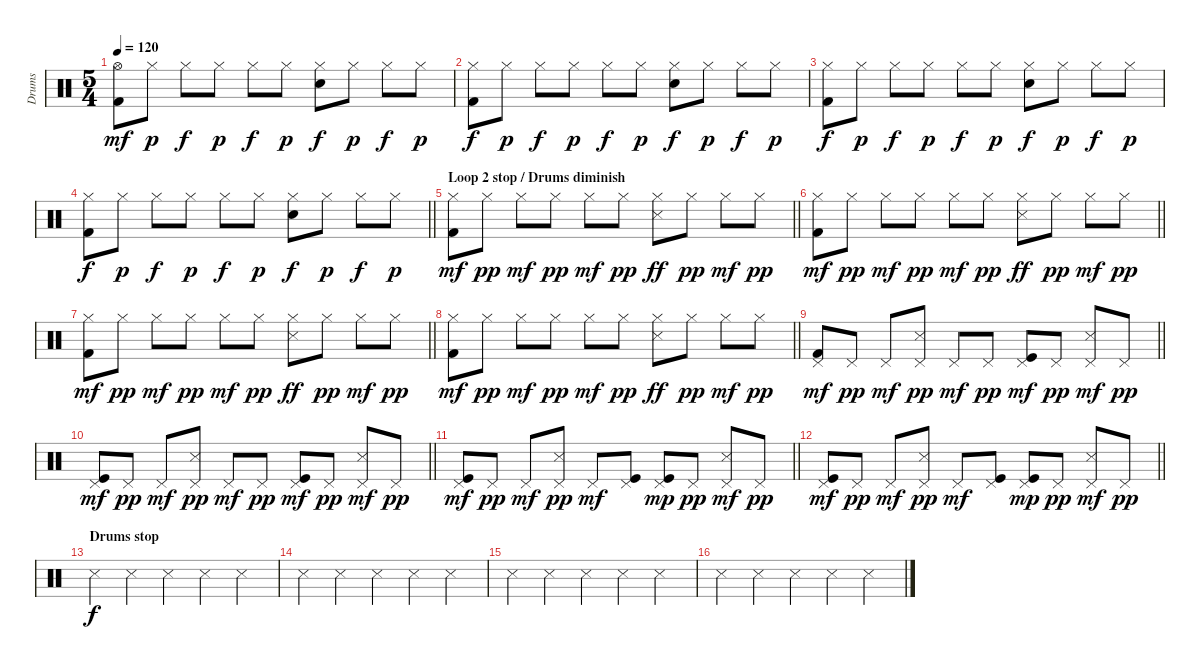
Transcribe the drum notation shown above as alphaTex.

\track ("Drums" "Drums") {instrument percussion}
\staff {score}
\articulation defaults
\ts (5 4)
\tempo 120
\clef neutral
\ks c
("Hi-Hat (open)" "Kick (hit) 2").8{dy mf} "Hi-Hat (closed)".8{dy p} "Hi-Hat (closed)".8{dy f} "Hi-Hat (closed)".8{dy p} "Hi-Hat (closed)".8{dy f} "Hi-Hat (closed)".8{dy p} ("Hi-Hat (closed)" "Electric Snare (hit)").8{dy f} "Hi-Hat (closed)".8{dy p} "Hi-Hat (closed)".8{dy f} "Hi-Hat (closed)".8{dy p} |
("Hi-Hat (closed)" "Kick (hit) 2").8{dy f} "Hi-Hat (closed)".8{dy p} "Hi-Hat (closed)".8{dy f} "Hi-Hat (closed)".8{dy p} "Hi-Hat (closed)".8{dy f} "Hi-Hat (closed)".8{dy p} ("Hi-Hat (closed)" "Electric Snare (hit)").8{dy f} "Hi-Hat (closed)".8{dy p} "Hi-Hat (closed)".8{dy f} "Hi-Hat (closed)".8{dy p} |
("Hi-Hat (closed)" "Kick (hit) 2").8{dy f} "Hi-Hat (closed)".8{dy p} "Hi-Hat (closed)".8{dy f} "Hi-Hat (closed)".8{dy p} "Hi-Hat (closed)".8{dy f} "Hi-Hat (closed)".8{dy p} ("Hi-Hat (closed)" "Electric Snare (hit)").8{dy f} "Hi-Hat (closed)".8{dy p} "Hi-Hat (closed)".8{dy f} "Hi-Hat (closed)".8{dy p} |
\barLineRight lightlight
("Hi-Hat (closed)" "Kick (hit) 2").8{dy f} "Hi-Hat (closed)".8{dy p} "Hi-Hat (closed)".8{dy f} "Hi-Hat (closed)".8{dy p} "Hi-Hat (closed)".8{dy f} "Hi-Hat (closed)".8{dy p} ("Hi-Hat (closed)" "Electric Snare (hit)").8{dy f} "Hi-Hat (closed)".8{dy p} "Hi-Hat (closed)".8{dy f} "Hi-Hat (closed)".8{dy p} |
\section ("" "Loop 2 stop / Drums diminish")
\barLineRight lightlight
("Hi-Hat (closed)" "Kick (hit) 2").8{dy mf} "Hi-Hat (closed)".8{dy pp} "Hi-Hat (closed)".8{dy mf} "Hi-Hat (closed)".8{dy pp} "Hi-Hat (closed)".8{dy mf} "Hi-Hat (closed)".8{dy pp} ("Hi-Hat (closed)" "Snare (side stick) 3").8{dy ff} "Hi-Hat (closed)".8{dy pp} "Hi-Hat (closed)".8{dy mf} "Hi-Hat (closed)".8{dy pp} |
\barLineRight lightlight
("Hi-Hat (closed)" "Kick (hit) 2").8{dy mf} "Hi-Hat (closed)".8{dy pp} "Hi-Hat (closed)".8{dy mf} "Hi-Hat (closed)".8{dy pp} "Hi-Hat (closed)".8{dy mf} "Hi-Hat (closed)".8{dy pp} ("Hi-Hat (closed)" "Snare (side stick) 3").8{dy ff} "Hi-Hat (closed)".8{dy pp} "Hi-Hat (closed)".8{dy mf} "Hi-Hat (closed)".8{dy pp} |
\barLineRight lightlight
("Hi-Hat (closed)" "Kick (hit) 2").8{dy mf} "Hi-Hat (closed)".8{dy pp} "Hi-Hat (closed)".8{dy mf} "Hi-Hat (closed)".8{dy pp} "Hi-Hat (closed)".8{dy mf} "Hi-Hat (closed)".8{dy pp} ("Hi-Hat (closed)" "Snare (side stick) 3").8{dy ff} "Hi-Hat (closed)".8{dy pp} "Hi-Hat (closed)".8{dy mf} "Hi-Hat (closed)".8{dy pp} |
\barLineRight lightlight
("Hi-Hat (closed)" "Kick (hit) 2").8{dy mf} "Hi-Hat (closed)".8{dy pp} "Hi-Hat (closed)".8{dy mf} "Hi-Hat (closed)".8{dy pp} "Hi-Hat (closed)".8{dy mf} "Hi-Hat (closed)".8{dy pp} ("Hi-Hat (closed)" "Snare (side stick) 3").8{dy ff} "Hi-Hat (closed)".8{dy pp} "Hi-Hat (closed)".8{dy mf} "Hi-Hat (closed)".8{dy pp} |
\barLineRight lightlight
("Pedal Hi-Hat (hit)" "Kick (hit) 2").8{dy mf} "Pedal Hi-Hat (hit)".8{dy pp} "Pedal Hi-Hat (hit)".8{dy mf} ("Pedal Hi-Hat (hit)" "Snare (side stick) 3").8{dy pp} "Pedal Hi-Hat (hit)".8{dy mf} "Pedal Hi-Hat (hit)".8{dy pp} ("Pedal Hi-Hat (hit)" "Kick (hit)").8{dy mf} "Pedal Hi-Hat (hit)".8{dy pp} ("Pedal Hi-Hat (hit)" "Snare (side stick) 3").8{dy mf} "Pedal Hi-Hat (hit)".8{dy pp} |
\barLineRight lightlight
("Pedal Hi-Hat (hit)" "Kick (hit)").8{dy mf} "Pedal Hi-Hat (hit)".8{dy pp} "Pedal Hi-Hat (hit)".8{dy mf} ("Pedal Hi-Hat (hit)" "Snare (side stick) 3").8{dy pp} "Pedal Hi-Hat (hit)".8{dy mf} "Pedal Hi-Hat (hit)".8{dy pp} ("Pedal Hi-Hat (hit)" "Kick (hit)").8{dy mf} "Pedal Hi-Hat (hit)".8{dy pp} ("Pedal Hi-Hat (hit)" "Snare (side stick) 3").8{dy mf} "Pedal Hi-Hat (hit)".8{dy pp} |
\barLineRight lightlight
("Pedal Hi-Hat (hit)" "Kick (hit)").8{dy mf} "Pedal Hi-Hat (hit)".8{dy pp} "Pedal Hi-Hat (hit)".8{dy mf} ("Pedal Hi-Hat (hit)" "Snare (side stick) 3").8{dy pp} "Pedal Hi-Hat (hit)".8{dy mf} ("Pedal Hi-Hat (hit)" "Kick (hit)").8 ("Pedal Hi-Hat (hit)" "Kick (hit)").8{dy mp} "Pedal Hi-Hat (hit)".8{dy pp} ("Pedal Hi-Hat (hit)" "Snare (side stick) 3").8{dy mf} "Pedal Hi-Hat (hit)".8{dy pp} |
\barLineRight lightlight
("Pedal Hi-Hat (hit)" "Kick (hit)").8{dy mf} "Pedal Hi-Hat (hit)".8{dy pp} "Pedal Hi-Hat (hit)".8{dy mf} ("Pedal Hi-Hat (hit)" "Snare (side stick) 3").8{dy pp} "Pedal Hi-Hat (hit)".8{dy mf} ("Pedal Hi-Hat (hit)" "Kick (hit)").8 ("Pedal Hi-Hat (hit)" "Kick (hit)").8{dy mp} "Pedal Hi-Hat (hit)".8{dy pp} ("Pedal Hi-Hat (hit)" "Snare (side stick) 3").8{dy mf} "Pedal Hi-Hat (hit)".8{dy pp} |
\section ("" "Drums stop")
"Snare (side stick) 3".4{dy f} "Snare (side stick) 3".4 "Snare (side stick) 3".4 "Snare (side stick) 3".4 "Snare (side stick) 3".4 |
"Snare (side stick) 3".4 "Snare (side stick) 3".4 "Snare (side stick) 3".4 "Snare (side stick) 3".4 "Snare (side stick) 3".4 |
"Snare (side stick) 3".4 "Snare (side stick) 3".4 "Snare (side stick) 3".4 "Snare (side stick) 3".4 "Snare (side stick) 3".4 |
"Snare (side stick) 3".4 "Snare (side stick) 3".4 "Snare (side stick) 3".4 "Snare (side stick) 3".4 "Snare (side stick) 3".4
